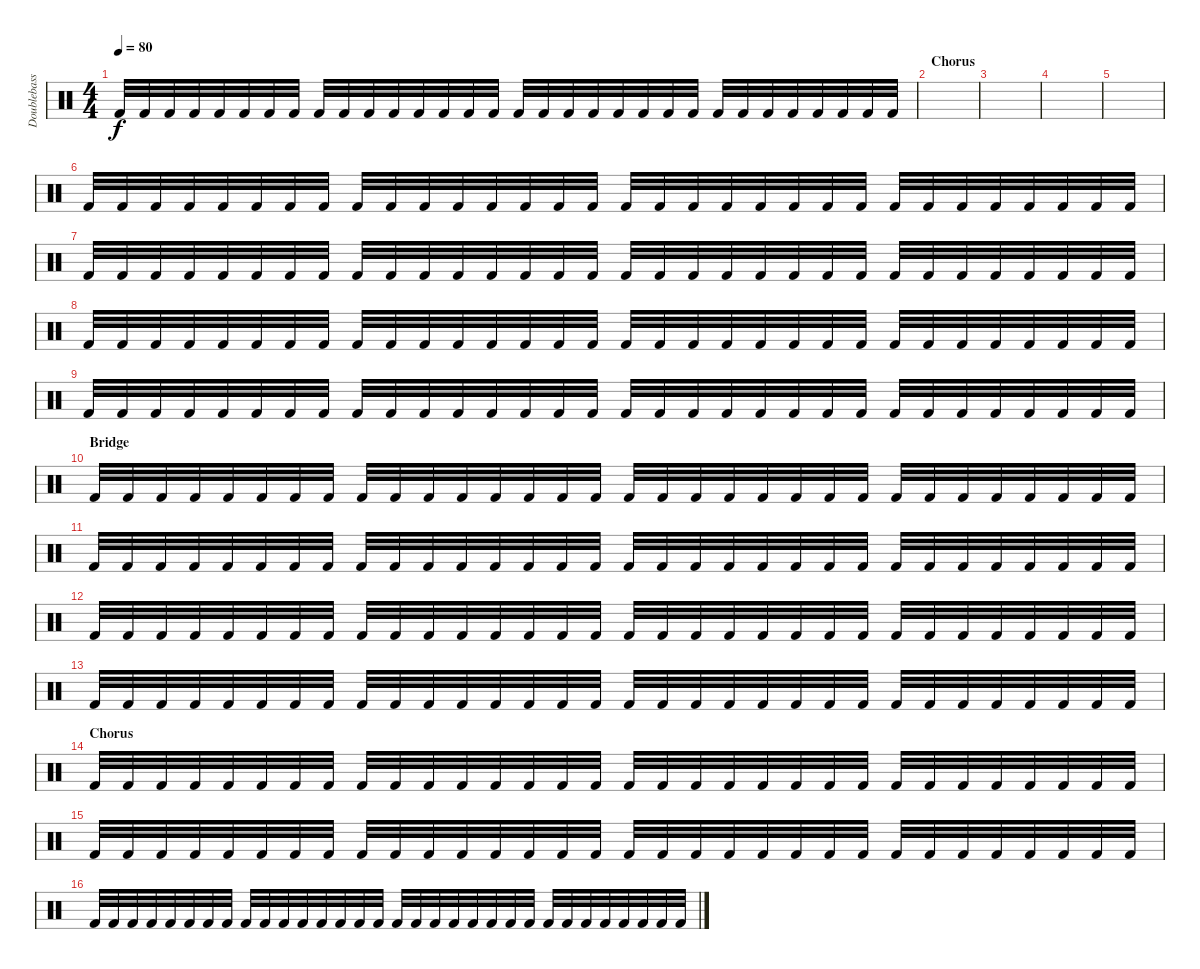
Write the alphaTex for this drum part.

\track ("Doublebass" "Doublebass") {instrument percussion}
\staff {score}
\articulation defaults
\ts (4 4)
\tempo 80
\clef neutral
\ks c "Kick (hit) 2".32{dy f} "Kick (hit) 2".32 "Kick (hit) 2".32 "Kick (hit) 2".32 "Kick (hit) 2".32 "Kick (hit) 2".32 "Kick (hit) 2".32 "Kick (hit) 2".32 "Kick (hit) 2".32 "Kick (hit) 2".32 "Kick (hit) 2".32 "Kick (hit) 2".32 "Kick (hit) 2".32 "Kick (hit) 2".32 "Kick (hit) 2".32 "Kick (hit) 2".32 "Kick (hit) 2".32 "Kick (hit) 2".32 "Kick (hit) 2".32 "Kick (hit) 2".32 "Kick (hit) 2".32 "Kick (hit) 2".32 "Kick (hit) 2".32 "Kick (hit) 2".32 "Kick (hit) 2".32 "Kick (hit) 2".32 "Kick (hit) 2".32 "Kick (hit) 2".32 "Kick (hit) 2".32 "Kick (hit) 2".32 "Kick (hit) 2".32 "Kick (hit) 2".32
|
\section ("" "Chorus")
|
|
|
|
"Kick (hit) 2".32 "Kick (hit) 2".32 "Kick (hit) 2".32 "Kick (hit) 2".32 "Kick (hit) 2".32 "Kick (hit) 2".32 "Kick (hit) 2".32 "Kick (hit) 2".32 "Kick (hit) 2".32 "Kick (hit) 2".32 "Kick (hit) 2".32 "Kick (hit) 2".32 "Kick (hit) 2".32 "Kick (hit) 2".32 "Kick (hit) 2".32 "Kick (hit) 2".32 "Kick (hit) 2".32 "Kick (hit) 2".32 "Kick (hit) 2".32 "Kick (hit) 2".32 "Kick (hit) 2".32 "Kick (hit) 2".32 "Kick (hit) 2".32 "Kick (hit) 2".32 "Kick (hit) 2".32 "Kick (hit) 2".32 "Kick (hit) 2".32 "Kick (hit) 2".32 "Kick (hit) 2".32 "Kick (hit) 2".32 "Kick (hit) 2".32 "Kick (hit) 2".32 |
"Kick (hit) 2".32 "Kick (hit) 2".32 "Kick (hit) 2".32 "Kick (hit) 2".32 "Kick (hit) 2".32 "Kick (hit) 2".32 "Kick (hit) 2".32 "Kick (hit) 2".32 "Kick (hit) 2".32 "Kick (hit) 2".32 "Kick (hit) 2".32 "Kick (hit) 2".32 "Kick (hit) 2".32 "Kick (hit) 2".32 "Kick (hit) 2".32 "Kick (hit) 2".32 "Kick (hit) 2".32 "Kick (hit) 2".32 "Kick (hit) 2".32 "Kick (hit) 2".32 "Kick (hit) 2".32 "Kick (hit) 2".32 "Kick (hit) 2".32 "Kick (hit) 2".32 "Kick (hit) 2".32 "Kick (hit) 2".32 "Kick (hit) 2".32 "Kick (hit) 2".32 "Kick (hit) 2".32 "Kick (hit) 2".32 "Kick (hit) 2".32 "Kick (hit) 2".32 |
"Kick (hit) 2".32 "Kick (hit) 2".32 "Kick (hit) 2".32 "Kick (hit) 2".32 "Kick (hit) 2".32 "Kick (hit) 2".32 "Kick (hit) 2".32 "Kick (hit) 2".32 "Kick (hit) 2".32 "Kick (hit) 2".32 "Kick (hit) 2".32 "Kick (hit) 2".32 "Kick (hit) 2".32 "Kick (hit) 2".32 "Kick (hit) 2".32 "Kick (hit) 2".32 "Kick (hit) 2".32 "Kick (hit) 2".32 "Kick (hit) 2".32 "Kick (hit) 2".32 "Kick (hit) 2".32 "Kick (hit) 2".32 "Kick (hit) 2".32 "Kick (hit) 2".32 "Kick (hit) 2".32 "Kick (hit) 2".32 "Kick (hit) 2".32 "Kick (hit) 2".32 "Kick (hit) 2".32 "Kick (hit) 2".32 "Kick (hit) 2".32 "Kick (hit) 2".32 |
"Kick (hit) 2".32 "Kick (hit) 2".32 "Kick (hit) 2".32 "Kick (hit) 2".32 "Kick (hit) 2".32 "Kick (hit) 2".32 "Kick (hit) 2".32 "Kick (hit) 2".32 "Kick (hit) 2".32 "Kick (hit) 2".32 "Kick (hit) 2".32 "Kick (hit) 2".32 "Kick (hit) 2".32 "Kick (hit) 2".32 "Kick (hit) 2".32 "Kick (hit) 2".32 "Kick (hit) 2".32 "Kick (hit) 2".32 "Kick (hit) 2".32 "Kick (hit) 2".32 "Kick (hit) 2".32 "Kick (hit) 2".32 "Kick (hit) 2".32 "Kick (hit) 2".32 "Kick (hit) 2".32 "Kick (hit) 2".32 "Kick (hit) 2".32 "Kick (hit) 2".32 "Kick (hit) 2".32 "Kick (hit) 2".32 "Kick (hit) 2".32 "Kick (hit) 2".32 |
\section ("" "Bridge")
"Kick (hit) 2".32 "Kick (hit) 2".32 "Kick (hit) 2".32 "Kick (hit) 2".32 "Kick (hit) 2".32 "Kick (hit) 2".32 "Kick (hit) 2".32 "Kick (hit) 2".32 "Kick (hit) 2".32 "Kick (hit) 2".32 "Kick (hit) 2".32 "Kick (hit) 2".32 "Kick (hit) 2".32 "Kick (hit) 2".32 "Kick (hit) 2".32 "Kick (hit) 2".32 "Kick (hit) 2".32 "Kick (hit) 2".32 "Kick (hit) 2".32 "Kick (hit) 2".32 "Kick (hit) 2".32 "Kick (hit) 2".32 "Kick (hit) 2".32 "Kick (hit) 2".32 "Kick (hit) 2".32 "Kick (hit) 2".32 "Kick (hit) 2".32 "Kick (hit) 2".32 "Kick (hit) 2".32 "Kick (hit) 2".32 "Kick (hit) 2".32 "Kick (hit) 2".32 |
"Kick (hit) 2".32 "Kick (hit) 2".32 "Kick (hit) 2".32 "Kick (hit) 2".32 "Kick (hit) 2".32 "Kick (hit) 2".32 "Kick (hit) 2".32 "Kick (hit) 2".32 "Kick (hit) 2".32 "Kick (hit) 2".32 "Kick (hit) 2".32 "Kick (hit) 2".32 "Kick (hit) 2".32 "Kick (hit) 2".32 "Kick (hit) 2".32 "Kick (hit) 2".32 "Kick (hit) 2".32 "Kick (hit) 2".32 "Kick (hit) 2".32 "Kick (hit) 2".32 "Kick (hit) 2".32 "Kick (hit) 2".32 "Kick (hit) 2".32 "Kick (hit) 2".32 "Kick (hit) 2".32 "Kick (hit) 2".32 "Kick (hit) 2".32 "Kick (hit) 2".32 "Kick (hit) 2".32 "Kick (hit) 2".32 "Kick (hit) 2".32 "Kick (hit) 2".32 |
"Kick (hit) 2".32 "Kick (hit) 2".32 "Kick (hit) 2".32 "Kick (hit) 2".32 "Kick (hit) 2".32 "Kick (hit) 2".32 "Kick (hit) 2".32 "Kick (hit) 2".32 "Kick (hit) 2".32 "Kick (hit) 2".32 "Kick (hit) 2".32 "Kick (hit) 2".32 "Kick (hit) 2".32 "Kick (hit) 2".32 "Kick (hit) 2".32 "Kick (hit) 2".32 "Kick (hit) 2".32 "Kick (hit) 2".32 "Kick (hit) 2".32 "Kick (hit) 2".32 "Kick (hit) 2".32 "Kick (hit) 2".32 "Kick (hit) 2".32 "Kick (hit) 2".32 "Kick (hit) 2".32 "Kick (hit) 2".32 "Kick (hit) 2".32 "Kick (hit) 2".32 "Kick (hit) 2".32 "Kick (hit) 2".32 "Kick (hit) 2".32 "Kick (hit) 2".32 |
"Kick (hit) 2".32 "Kick (hit) 2".32 "Kick (hit) 2".32 "Kick (hit) 2".32 "Kick (hit) 2".32 "Kick (hit) 2".32 "Kick (hit) 2".32 "Kick (hit) 2".32 "Kick (hit) 2".32 "Kick (hit) 2".32 "Kick (hit) 2".32 "Kick (hit) 2".32 "Kick (hit) 2".32 "Kick (hit) 2".32 "Kick (hit) 2".32 "Kick (hit) 2".32 "Kick (hit) 2".32 "Kick (hit) 2".32 "Kick (hit) 2".32 "Kick (hit) 2".32 "Kick (hit) 2".32 "Kick (hit) 2".32 "Kick (hit) 2".32 "Kick (hit) 2".32 "Kick (hit) 2".32 "Kick (hit) 2".32 "Kick (hit) 2".32 "Kick (hit) 2".32 "Kick (hit) 2".32 "Kick (hit) 2".32 "Kick (hit) 2".32 "Kick (hit) 2".32 |
\section ("" "Chorus")
"Kick (hit) 2".32 "Kick (hit) 2".32 "Kick (hit) 2".32 "Kick (hit) 2".32 "Kick (hit) 2".32 "Kick (hit) 2".32 "Kick (hit) 2".32 "Kick (hit) 2".32 "Kick (hit) 2".32 "Kick (hit) 2".32 "Kick (hit) 2".32 "Kick (hit) 2".32 "Kick (hit) 2".32 "Kick (hit) 2".32 "Kick (hit) 2".32 "Kick (hit) 2".32 "Kick (hit) 2".32 "Kick (hit) 2".32 "Kick (hit) 2".32 "Kick (hit) 2".32 "Kick (hit) 2".32 "Kick (hit) 2".32 "Kick (hit) 2".32 "Kick (hit) 2".32 "Kick (hit) 2".32 "Kick (hit) 2".32 "Kick (hit) 2".32 "Kick (hit) 2".32 "Kick (hit) 2".32 "Kick (hit) 2".32 "Kick (hit) 2".32 "Kick (hit) 2".32 |
"Kick (hit) 2".32 "Kick (hit) 2".32 "Kick (hit) 2".32 "Kick (hit) 2".32 "Kick (hit) 2".32 "Kick (hit) 2".32 "Kick (hit) 2".32 "Kick (hit) 2".32 "Kick (hit) 2".32 "Kick (hit) 2".32 "Kick (hit) 2".32 "Kick (hit) 2".32 "Kick (hit) 2".32 "Kick (hit) 2".32 "Kick (hit) 2".32 "Kick (hit) 2".32 "Kick (hit) 2".32 "Kick (hit) 2".32 "Kick (hit) 2".32 "Kick (hit) 2".32 "Kick (hit) 2".32 "Kick (hit) 2".32 "Kick (hit) 2".32 "Kick (hit) 2".32 "Kick (hit) 2".32 "Kick (hit) 2".32 "Kick (hit) 2".32 "Kick (hit) 2".32 "Kick (hit) 2".32 "Kick (hit) 2".32 "Kick (hit) 2".32 "Kick (hit) 2".32 |
"Kick (hit) 2".32 "Kick (hit) 2".32 "Kick (hit) 2".32 "Kick (hit) 2".32 "Kick (hit) 2".32 "Kick (hit) 2".32 "Kick (hit) 2".32 "Kick (hit) 2".32 "Kick (hit) 2".32 "Kick (hit) 2".32 "Kick (hit) 2".32 "Kick (hit) 2".32 "Kick (hit) 2".32 "Kick (hit) 2".32 "Kick (hit) 2".32 "Kick (hit) 2".32 "Kick (hit) 2".32 "Kick (hit) 2".32 "Kick (hit) 2".32 "Kick (hit) 2".32 "Kick (hit) 2".32 "Kick (hit) 2".32 "Kick (hit) 2".32 "Kick (hit) 2".32 "Kick (hit) 2".32 "Kick (hit) 2".32 "Kick (hit) 2".32 "Kick (hit) 2".32 "Kick (hit) 2".32 "Kick (hit) 2".32 "Kick (hit) 2".32 "Kick (hit) 2".32
